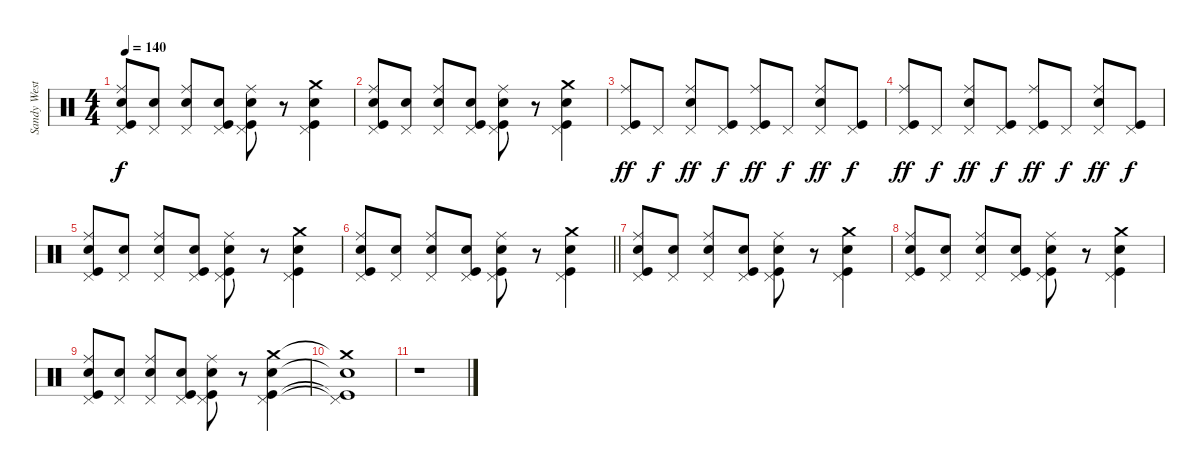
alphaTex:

\track ("Sandy West" "Sandy West") {instrument percussion}
\staff {score}
\articulation defaults
\ts (4 4)
\tempo 140
\clef neutral
\ks c
("Ride (middle)" "Pedal Hi-Hat (hit)" "Snare (hit) 2" "Kick (hit)").8{dy f} ("Pedal Hi-Hat (hit)" "Snare (hit) 2").8 ("Ride (middle)" "Pedal Hi-Hat (hit)" "Snare (hit) 2").8 ("Pedal Hi-Hat (hit)" "Snare (hit) 2" "Kick (hit)").8 ("Ride (middle)" "Pedal Hi-Hat (hit)" "Snare (hit) 2" "Kick (hit)").8 r.8 ("Crash medium (hit)" "Pedal Hi-Hat (hit)" "Snare (hit) 2" "Kick (hit)").4 |
("Ride (middle)" "Pedal Hi-Hat (hit)" "Snare (hit) 2" "Kick (hit)").8 ("Pedal Hi-Hat (hit)" "Snare (hit) 2").8 ("Ride (middle)" "Pedal Hi-Hat (hit)" "Snare (hit) 2").8 ("Pedal Hi-Hat (hit)" "Snare (hit) 2" "Kick (hit)").8 ("Ride (middle)" "Pedal Hi-Hat (hit)" "Snare (hit) 2" "Kick (hit)").8 r.8 ("Crash medium (hit)" "Pedal Hi-Hat (hit)" "Snare (hit) 2" "Kick (hit)").4 |
("Ride (middle)" "Pedal Hi-Hat (hit)" "Kick (hit)").8{dy ff} "Pedal Hi-Hat (hit)".8{dy f} ("Ride (middle)" "Snare (hit) 2" "Pedal Hi-Hat (hit)").8{dy ff} ("Pedal Hi-Hat (hit)" "Kick (hit)").8{dy f} ("Ride (middle)" "Pedal Hi-Hat (hit)" "Kick (hit)").8{dy ff} "Pedal Hi-Hat (hit)".8{dy f} ("Ride (middle)" "Snare (hit) 2" "Pedal Hi-Hat (hit)").8{dy ff} ("Pedal Hi-Hat (hit)" "Kick (hit)").8{dy f} |
("Ride (middle)" "Pedal Hi-Hat (hit)" "Kick (hit)").8{dy ff} "Pedal Hi-Hat (hit)".8{dy f} ("Ride (middle)" "Snare (hit) 2" "Pedal Hi-Hat (hit)").8{dy ff} ("Pedal Hi-Hat (hit)" "Kick (hit)").8{dy f} ("Ride (middle)" "Pedal Hi-Hat (hit)" "Kick (hit)").8{dy ff} "Pedal Hi-Hat (hit)".8{dy f} ("Ride (middle)" "Snare (hit) 2" "Pedal Hi-Hat (hit)").8{dy ff} ("Pedal Hi-Hat (hit)" "Kick (hit)").8{dy f} |
("Ride (middle)" "Pedal Hi-Hat (hit)" "Snare (hit) 2" "Kick (hit)").8 ("Pedal Hi-Hat (hit)" "Snare (hit) 2").8 ("Ride (middle)" "Pedal Hi-Hat (hit)" "Snare (hit) 2").8 ("Pedal Hi-Hat (hit)" "Snare (hit) 2" "Kick (hit)").8 ("Ride (middle)" "Pedal Hi-Hat (hit)" "Snare (hit) 2" "Kick (hit)").8 r.8 ("Crash medium (hit)" "Pedal Hi-Hat (hit)" "Snare (hit) 2" "Kick (hit)").4 |
\barLineRight lightlight
("Ride (middle)" "Pedal Hi-Hat (hit)" "Snare (hit) 2" "Kick (hit)").8 ("Pedal Hi-Hat (hit)" "Snare (hit) 2").8 ("Ride (middle)" "Pedal Hi-Hat (hit)" "Snare (hit) 2").8 ("Pedal Hi-Hat (hit)" "Snare (hit) 2" "Kick (hit)").8 ("Ride (middle)" "Pedal Hi-Hat (hit)" "Snare (hit) 2" "Kick (hit)").8 r.8 ("Crash medium (hit)" "Pedal Hi-Hat (hit)" "Snare (hit) 2" "Kick (hit)").4 |
("Ride (middle)" "Pedal Hi-Hat (hit)" "Snare (hit) 2" "Kick (hit)").8 ("Pedal Hi-Hat (hit)" "Snare (hit) 2").8 ("Ride (middle)" "Pedal Hi-Hat (hit)" "Snare (hit) 2").8 ("Pedal Hi-Hat (hit)" "Snare (hit) 2" "Kick (hit)").8 ("Ride (middle)" "Pedal Hi-Hat (hit)" "Snare (hit) 2" "Kick (hit)").8 r.8 ("Crash medium (hit)" "Pedal Hi-Hat (hit)" "Snare (hit) 2" "Kick (hit)").4 |
("Ride (middle)" "Pedal Hi-Hat (hit)" "Snare (hit) 2" "Kick (hit)").8 ("Pedal Hi-Hat (hit)" "Snare (hit) 2").8 ("Ride (middle)" "Pedal Hi-Hat (hit)" "Snare (hit) 2").8 ("Pedal Hi-Hat (hit)" "Snare (hit) 2" "Kick (hit)").8 ("Ride (middle)" "Pedal Hi-Hat (hit)" "Snare (hit) 2" "Kick (hit)").8 r.8 ("Crash medium (hit)" "Pedal Hi-Hat (hit)" "Snare (hit) 2" "Kick (hit)").4 |
("Ride (middle)" "Pedal Hi-Hat (hit)" "Snare (hit) 2" "Kick (hit)").8 ("Pedal Hi-Hat (hit)" "Snare (hit) 2").8 ("Ride (middle)" "Pedal Hi-Hat (hit)" "Snare (hit) 2").8 ("Pedal Hi-Hat (hit)" "Snare (hit) 2" "Kick (hit)").8 ("Ride (middle)" "Pedal Hi-Hat (hit)" "Snare (hit) 2" "Kick (hit)").8 r.8 ("Crash medium (hit)" "Pedal Hi-Hat (hit)" "Snare (hit) 2" "Kick (hit)").4 |
("Crash medium (hit)"{t} "Pedal Hi-Hat (hit)"{t} "Snare (hit) 2"{t} "Kick (hit)"{t}).1 |
r.1
